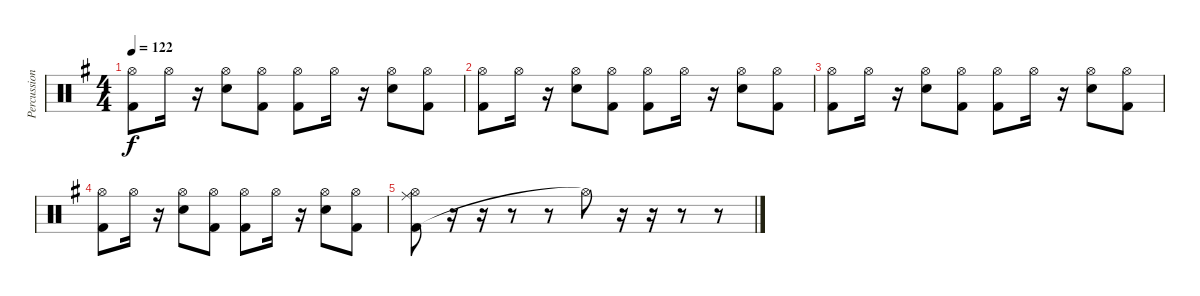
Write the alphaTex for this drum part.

\track ("Percussion" "Percussion") {instrument percussion}
\staff {score}
\articulation defaults
\ts (4 4)
\tempo 122
\clef neutral
\ks g
("Kick (hit) 2" "Hi-Hat (open)").8{dy f} "Hi-Hat (open)".16 r.16 ("Electric Snare (hit)" "Hi-Hat (open)").8 ("Kick (hit) 2" "Hi-Hat (open)").8 ("Kick (hit) 2" "Hi-Hat (open)").8 "Hi-Hat (open)".16 r.16 ("Electric Snare (hit)" "Hi-Hat (open)").8 ("Kick (hit) 2" "Hi-Hat (open)").8 |
("Kick (hit) 2" "Hi-Hat (open)").8 "Hi-Hat (open)".16 r.16 ("Electric Snare (hit)" "Hi-Hat (open)").8 ("Kick (hit) 2" "Hi-Hat (open)").8 ("Kick (hit) 2" "Hi-Hat (open)").8 "Hi-Hat (open)".16 r.16 ("Electric Snare (hit)" "Hi-Hat (open)").8 ("Kick (hit) 2" "Hi-Hat (open)").8 |
("Kick (hit) 2" "Hi-Hat (open)").8 "Hi-Hat (open)".16 r.16 ("Electric Snare (hit)" "Hi-Hat (open)").8 ("Kick (hit) 2" "Hi-Hat (open)").8 ("Kick (hit) 2" "Hi-Hat (open)").8 "Hi-Hat (open)".16 r.16 ("Electric Snare (hit)" "Hi-Hat (open)").8 ("Kick (hit) 2" "Hi-Hat (open)").8 |
("Kick (hit) 2" "Hi-Hat (open)").8 "Hi-Hat (open)".16 r.16 ("Electric Snare (hit)" "Hi-Hat (open)").8 ("Kick (hit) 2" "Hi-Hat (open)").8 ("Kick (hit) 2" "Hi-Hat (open)").8 "Hi-Hat (open)".16 r.16 ("Electric Snare (hit)" "Hi-Hat (open)").8 ("Kick (hit) 2" "Hi-Hat (open)").8 |
("Kick (hit) 2" "Ride (middle)" "Hi-Hat (open)").8 r.16 r.16 r.8 r.8 "Hi-Hat (open)"{t}.8 r.16 r.16 r.8 r.8
